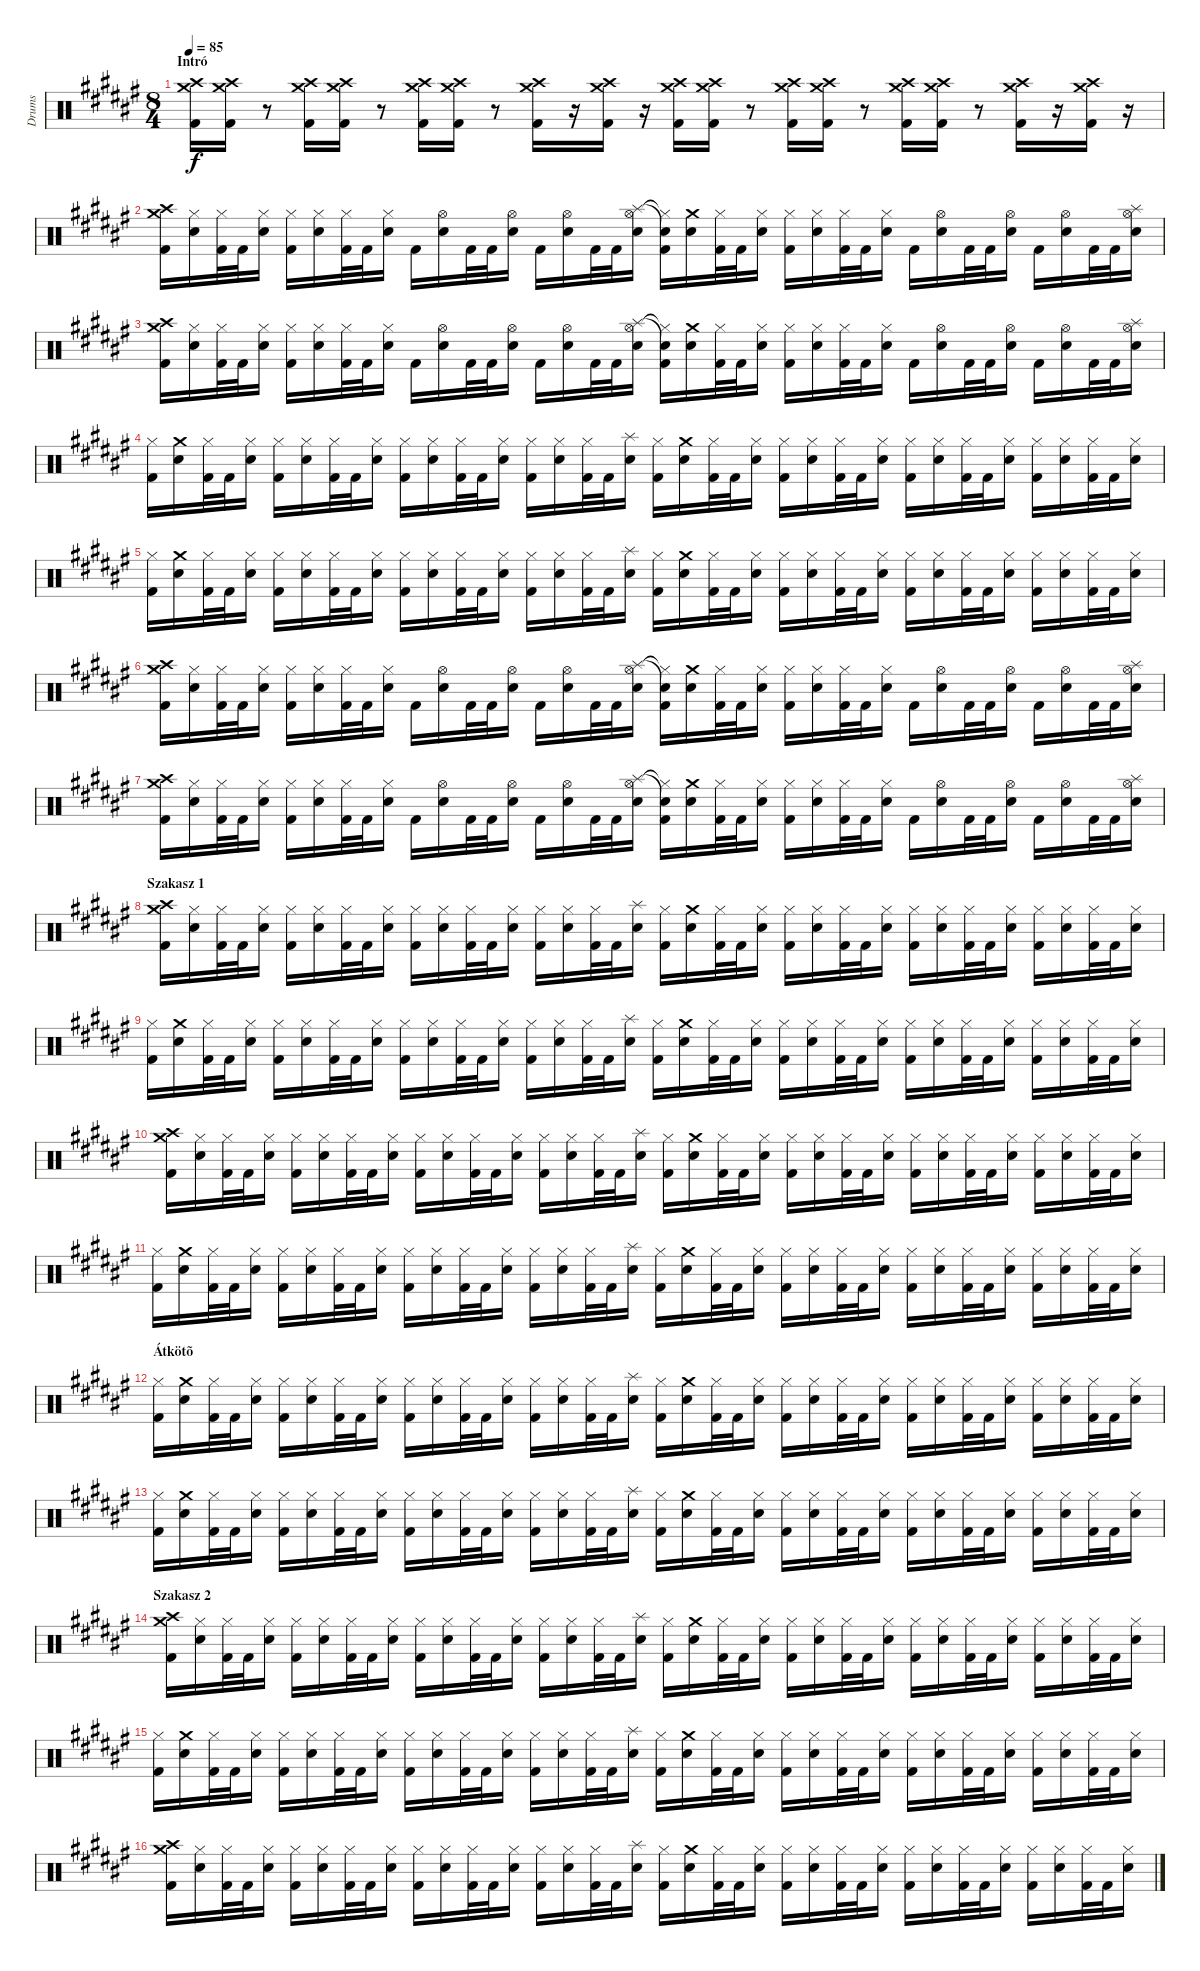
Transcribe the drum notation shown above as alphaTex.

\track ("Drums" "Drums") {instrument percussion}
\staff {score}
\articulation defaults
\ts (8 4)
\section ("" "Intró")
\tempo 85
\clef neutral
\ks d#minor
("Crash medium (hit)" "Crash high (hit)" "Kick (hit) 2").16{dy f} ("Crash medium (hit)" "Crash high (hit)" "Kick (hit) 2").16 r.8 ("Crash medium (hit)" "Crash high (hit)" "Kick (hit) 2").16 ("Crash medium (hit)" "Crash high (hit)" "Kick (hit) 2").16 r.8 ("Crash medium (hit)" "Crash high (hit)" "Kick (hit) 2").16 ("Crash medium (hit)" "Crash high (hit)" "Kick (hit) 2").16 r.8 ("Crash medium (hit)" "Crash high (hit)" "Kick (hit) 2").16 r.16 ("Crash medium (hit)" "Crash high (hit)" "Kick (hit) 2").16 r.16 ("Crash medium (hit)" "Crash high (hit)" "Kick (hit) 2").16 ("Crash medium (hit)" "Crash high (hit)" "Kick (hit) 2").16 r.8 ("Crash medium (hit)" "Crash high (hit)" "Kick (hit) 2").16 ("Crash medium (hit)" "Crash high (hit)" "Kick (hit) 2").16 r.8 ("Crash medium (hit)" "Crash high (hit)" "Kick (hit) 2").16 ("Crash medium (hit)" "Crash high (hit)" "Kick (hit) 2").16 r.8 ("Crash medium (hit)" "Crash high (hit)" "Kick (hit) 2").16 r.16 ("Crash medium (hit)" "Crash high (hit)" "Kick (hit) 2").16 r.16 |
("Crash medium (hit)" "Crash high (hit)" "Kick (hit) 2").16 ("Hi-Hat (closed)" "Snare (hit) 2").16 ("Hi-Hat (closed)" "Kick (hit) 2").32 "Kick (hit) 2".32 ("Hi-Hat (closed)" "Snare (hit) 2").16 ("Hi-Hat (closed)" "Kick (hit) 2").16 ("Hi-Hat (closed)" "Snare (hit) 2").16 ("Hi-Hat (closed)" "Kick (hit) 2").32 "Kick (hit) 2".32 ("Hi-Hat (closed)" "Snare (hit) 2").16 "Kick (hit) 2".16 ("Hi-Hat (open)" "Snare (hit) 2").16 "Kick (hit) 2".32 "Kick (hit) 2".32 ("Hi-Hat (open)" "Snare (hit) 2").16 "Kick (hit) 2".16 ("Hi-Hat (open)" "Snare (hit) 2").16 "Kick (hit) 2".32 "Kick (hit) 2".32 ("Hi-Hat (open)" "Splash (hit)" "Snare (hit) 2").16 ("Hi-Hat (closed)"{t} "Snare (hit)"{t} "Kick (hit) 2").16 ("Crash medium (hit)" "Snare (hit) 2").16 ("Hi-Hat (closed)" "Kick (hit) 2").32 "Kick (hit) 2".32 ("Hi-Hat (closed)" "Snare (hit) 2").16 ("Hi-Hat (closed)" "Kick (hit) 2").16 ("Hi-Hat (closed)" "Snare (hit) 2").16 ("Hi-Hat (closed)" "Kick (hit) 2").32 "Kick (hit) 2".32 ("Hi-Hat (closed)" "Snare (hit) 2").16 "Kick (hit) 2".16 ("Hi-Hat (open)" "Snare (hit) 2").16 "Kick (hit) 2".32 "Kick (hit) 2".32 ("Hi-Hat (open)" "Snare (hit) 2").16 "Kick (hit) 2".16 ("Hi-Hat (open)" "Snare (hit) 2").16 "Kick (hit) 2".32 "Kick (hit) 2".32 ("Hi-Hat (open)" "Splash (hit)" "Snare (hit) 2").16 |
("Crash medium (hit)" "Crash high (hit)" "Kick (hit) 2").16 ("Hi-Hat (closed)" "Snare (hit) 2").16 ("Hi-Hat (closed)" "Kick (hit) 2").32 "Kick (hit) 2".32 ("Hi-Hat (closed)" "Snare (hit) 2").16 ("Hi-Hat (closed)" "Kick (hit) 2").16 ("Hi-Hat (closed)" "Snare (hit) 2").16 ("Hi-Hat (closed)" "Kick (hit) 2").32 "Kick (hit) 2".32 ("Hi-Hat (closed)" "Snare (hit) 2").16 "Kick (hit) 2".16 ("Hi-Hat (open)" "Snare (hit) 2").16 "Kick (hit) 2".32 "Kick (hit) 2".32 ("Hi-Hat (open)" "Snare (hit) 2").16 "Kick (hit) 2".16 ("Hi-Hat (open)" "Snare (hit) 2").16 "Kick (hit) 2".32 "Kick (hit) 2".32 ("Hi-Hat (open)" "Splash (hit)" "Snare (hit) 2").16 ("Hi-Hat (closed)"{t} "Snare (hit)"{t} "Kick (hit) 2").16 ("Crash medium (hit)" "Snare (hit) 2").16 ("Hi-Hat (closed)" "Kick (hit) 2").32 "Kick (hit) 2".32 ("Hi-Hat (closed)" "Snare (hit) 2").16 ("Hi-Hat (closed)" "Kick (hit) 2").16 ("Hi-Hat (closed)" "Snare (hit) 2").16 ("Hi-Hat (closed)" "Kick (hit) 2").32 "Kick (hit) 2".32 ("Hi-Hat (closed)" "Snare (hit) 2").16 "Kick (hit) 2".16 ("Hi-Hat (open)" "Snare (hit) 2").16 "Kick (hit) 2".32 "Kick (hit) 2".32 ("Hi-Hat (open)" "Snare (hit) 2").16 "Kick (hit) 2".16 ("Hi-Hat (open)" "Snare (hit) 2").16 "Kick (hit) 2".32 "Kick (hit) 2".32 ("Hi-Hat (open)" "Splash (hit)" "Snare (hit) 2").16 |
("Hi-Hat (closed)" "Kick (hit) 2").16 ("Crash medium (hit)" "Snare (hit) 2").16 ("Hi-Hat (closed)" "Kick (hit) 2").32 "Kick (hit) 2".32 ("Hi-Hat (closed)" "Snare (hit) 2").16 ("Hi-Hat (closed)" "Kick (hit) 2").16 ("Hi-Hat (closed)" "Snare (hit) 2").16 ("Hi-Hat (closed)" "Kick (hit) 2").32 "Kick (hit) 2".32 ("Hi-Hat (closed)" "Snare (hit) 2").16 ("Hi-Hat (closed)" "Kick (hit) 2").16 ("Hi-Hat (closed)" "Snare (hit) 2").16 ("Hi-Hat (closed)" "Kick (hit) 2").32 "Kick (hit) 2".32 ("Hi-Hat (closed)" "Snare (hit) 2").16 ("Hi-Hat (closed)" "Kick (hit) 2").16 ("Hi-Hat (closed)" "Snare (hit) 2").16 ("Hi-Hat (closed)" "Kick (hit) 2").32 "Kick (hit) 2".32 ("Splash (hit)" "Snare (hit) 2").16 ("Hi-Hat (closed)" "Kick (hit) 2").16 ("Crash medium (hit)" "Snare (hit) 2").16 ("Hi-Hat (closed)" "Kick (hit) 2").32 "Kick (hit) 2".32 ("Hi-Hat (closed)" "Snare (hit) 2").16 ("Hi-Hat (closed)" "Kick (hit) 2").16 ("Hi-Hat (closed)" "Snare (hit) 2").16 ("Hi-Hat (closed)" "Kick (hit) 2").32 "Kick (hit) 2".32 ("Hi-Hat (closed)" "Snare (hit) 2").16 ("Hi-Hat (closed)" "Kick (hit) 2").16 ("Hi-Hat (closed)" "Snare (hit) 2").16 ("Hi-Hat (closed)" "Kick (hit) 2").32 "Kick (hit) 2".32 ("Hi-Hat (closed)" "Snare (hit) 2").16 ("Hi-Hat (closed)" "Kick (hit) 2").16 ("Hi-Hat (closed)" "Snare (hit) 2").16 ("Hi-Hat (closed)" "Kick (hit) 2").32 "Kick (hit) 2".32 ("Hi-Hat (closed)" "Snare (hit) 2").16 |
("Hi-Hat (closed)" "Kick (hit) 2").16 ("Crash medium (hit)" "Snare (hit) 2").16 ("Hi-Hat (closed)" "Kick (hit) 2").32 "Kick (hit) 2".32 ("Hi-Hat (closed)" "Snare (hit) 2").16 ("Hi-Hat (closed)" "Kick (hit) 2").16 ("Hi-Hat (closed)" "Snare (hit) 2").16 ("Hi-Hat (closed)" "Kick (hit) 2").32 "Kick (hit) 2".32 ("Hi-Hat (closed)" "Snare (hit) 2").16 ("Hi-Hat (closed)" "Kick (hit) 2").16 ("Hi-Hat (closed)" "Snare (hit) 2").16 ("Hi-Hat (closed)" "Kick (hit) 2").32 "Kick (hit) 2".32 ("Hi-Hat (closed)" "Snare (hit) 2").16 ("Hi-Hat (closed)" "Kick (hit) 2").16 ("Hi-Hat (closed)" "Snare (hit) 2").16 ("Hi-Hat (closed)" "Kick (hit) 2").32 "Kick (hit) 2".32 ("Splash (hit)" "Snare (hit) 2").16 ("Hi-Hat (closed)" "Kick (hit) 2").16 ("Crash medium (hit)" "Snare (hit) 2").16 ("Hi-Hat (closed)" "Kick (hit) 2").32 "Kick (hit) 2".32 ("Hi-Hat (closed)" "Snare (hit) 2").16 ("Hi-Hat (closed)" "Kick (hit) 2").16 ("Hi-Hat (closed)" "Snare (hit) 2").16 ("Hi-Hat (closed)" "Kick (hit) 2").32 "Kick (hit) 2".32 ("Hi-Hat (closed)" "Snare (hit) 2").16 ("Hi-Hat (closed)" "Kick (hit) 2").16 ("Hi-Hat (closed)" "Snare (hit) 2").16 ("Hi-Hat (closed)" "Kick (hit) 2").32 "Kick (hit) 2".32 ("Hi-Hat (closed)" "Snare (hit) 2").16 ("Hi-Hat (closed)" "Kick (hit) 2").16 ("Hi-Hat (closed)" "Snare (hit) 2").16 ("Hi-Hat (closed)" "Kick (hit) 2").32 "Kick (hit) 2".32 ("Hi-Hat (closed)" "Snare (hit) 2").16 |
("Crash medium (hit)" "Crash high (hit)" "Kick (hit) 2").16 ("Hi-Hat (closed)" "Snare (hit) 2").16 ("Hi-Hat (closed)" "Kick (hit) 2").32 "Kick (hit) 2".32 ("Hi-Hat (closed)" "Snare (hit) 2").16 ("Hi-Hat (closed)" "Kick (hit) 2").16 ("Hi-Hat (closed)" "Snare (hit) 2").16 ("Hi-Hat (closed)" "Kick (hit) 2").32 "Kick (hit) 2".32 ("Hi-Hat (closed)" "Snare (hit) 2").16 "Kick (hit) 2".16 ("Hi-Hat (open)" "Snare (hit) 2").16 "Kick (hit) 2".32 "Kick (hit) 2".32 ("Hi-Hat (open)" "Snare (hit) 2").16 "Kick (hit) 2".16 ("Hi-Hat (open)" "Snare (hit) 2").16 "Kick (hit) 2".32 "Kick (hit) 2".32 ("Hi-Hat (open)" "Splash (hit)" "Snare (hit) 2").16 ("Hi-Hat (closed)"{t} "Snare (hit)"{t} "Kick (hit) 2").16 ("Crash medium (hit)" "Snare (hit) 2").16 ("Hi-Hat (closed)" "Kick (hit) 2").32 "Kick (hit) 2".32 ("Hi-Hat (closed)" "Snare (hit) 2").16 ("Hi-Hat (closed)" "Kick (hit) 2").16 ("Hi-Hat (closed)" "Snare (hit) 2").16 ("Hi-Hat (closed)" "Kick (hit) 2").32 "Kick (hit) 2".32 ("Hi-Hat (closed)" "Snare (hit) 2").16 "Kick (hit) 2".16 ("Hi-Hat (open)" "Snare (hit) 2").16 "Kick (hit) 2".32 "Kick (hit) 2".32 ("Hi-Hat (open)" "Snare (hit) 2").16 "Kick (hit) 2".16 ("Hi-Hat (open)" "Snare (hit) 2").16 "Kick (hit) 2".32 "Kick (hit) 2".32 ("Hi-Hat (open)" "Splash (hit)" "Snare (hit) 2").16 |
("Crash medium (hit)" "Crash high (hit)" "Kick (hit) 2").16 ("Hi-Hat (closed)" "Snare (hit) 2").16 ("Hi-Hat (closed)" "Kick (hit) 2").32 "Kick (hit) 2".32 ("Hi-Hat (closed)" "Snare (hit) 2").16 ("Hi-Hat (closed)" "Kick (hit) 2").16 ("Hi-Hat (closed)" "Snare (hit) 2").16 ("Hi-Hat (closed)" "Kick (hit) 2").32 "Kick (hit) 2".32 ("Hi-Hat (closed)" "Snare (hit) 2").16 "Kick (hit) 2".16 ("Hi-Hat (open)" "Snare (hit) 2").16 "Kick (hit) 2".32 "Kick (hit) 2".32 ("Hi-Hat (open)" "Snare (hit) 2").16 "Kick (hit) 2".16 ("Hi-Hat (open)" "Snare (hit) 2").16 "Kick (hit) 2".32 "Kick (hit) 2".32 ("Hi-Hat (open)" "Splash (hit)" "Snare (hit) 2").16 ("Hi-Hat (closed)"{t} "Snare (hit)"{t} "Kick (hit) 2").16 ("Crash medium (hit)" "Snare (hit) 2").16 ("Hi-Hat (closed)" "Kick (hit) 2").32 "Kick (hit) 2".32 ("Hi-Hat (closed)" "Snare (hit) 2").16 ("Hi-Hat (closed)" "Kick (hit) 2").16 ("Hi-Hat (closed)" "Snare (hit) 2").16 ("Hi-Hat (closed)" "Kick (hit) 2").32 "Kick (hit) 2".32 ("Hi-Hat (closed)" "Snare (hit) 2").16 "Kick (hit) 2".16 ("Hi-Hat (open)" "Snare (hit) 2").16 "Kick (hit) 2".32 "Kick (hit) 2".32 ("Hi-Hat (open)" "Snare (hit) 2").16 "Kick (hit) 2".16 ("Hi-Hat (open)" "Snare (hit) 2").16 "Kick (hit) 2".32 "Kick (hit) 2".32 ("Hi-Hat (open)" "Splash (hit)" "Snare (hit) 2").16 |
\section ("" "Szakasz 1")
("Crash medium (hit)" "Crash high (hit)" "Kick (hit) 2").16 ("Hi-Hat (closed)" "Snare (hit) 2").16 ("Hi-Hat (closed)" "Kick (hit) 2").32 "Kick (hit) 2".32 ("Hi-Hat (closed)" "Snare (hit) 2").16 ("Hi-Hat (closed)" "Kick (hit) 2").16 ("Hi-Hat (closed)" "Snare (hit) 2").16 ("Hi-Hat (closed)" "Kick (hit) 2").32 "Kick (hit) 2".32 ("Hi-Hat (closed)" "Snare (hit) 2").16 ("Hi-Hat (closed)" "Kick (hit) 2").16 ("Hi-Hat (closed)" "Snare (hit) 2").16 ("Hi-Hat (closed)" "Kick (hit) 2").32 "Kick (hit) 2".32 ("Hi-Hat (closed)" "Snare (hit) 2").16 ("Hi-Hat (closed)" "Kick (hit) 2").16 ("Hi-Hat (closed)" "Snare (hit) 2").16 ("Hi-Hat (closed)" "Kick (hit) 2").32 "Kick (hit) 2".32 ("Splash (hit)" "Snare (hit) 2").16 ("Hi-Hat (closed)" "Kick (hit) 2").16 ("Crash medium (hit)" "Snare (hit) 2").16 ("Hi-Hat (closed)" "Kick (hit) 2").32 "Kick (hit) 2".32 ("Hi-Hat (closed)" "Snare (hit) 2").16 ("Hi-Hat (closed)" "Kick (hit) 2").16 ("Hi-Hat (closed)" "Snare (hit) 2").16 ("Hi-Hat (closed)" "Kick (hit) 2").32 "Kick (hit) 2".32 ("Hi-Hat (closed)" "Snare (hit) 2").16 ("Hi-Hat (closed)" "Kick (hit) 2").16 ("Hi-Hat (closed)" "Snare (hit) 2").16 ("Hi-Hat (closed)" "Kick (hit) 2").32 "Kick (hit) 2".32 ("Hi-Hat (closed)" "Snare (hit) 2").16 ("Hi-Hat (closed)" "Kick (hit) 2").16 ("Hi-Hat (closed)" "Snare (hit) 2").16 ("Hi-Hat (closed)" "Kick (hit) 2").32 "Kick (hit) 2".32 ("Hi-Hat (closed)" "Snare (hit) 2").16 |
("Hi-Hat (closed)" "Kick (hit) 2").16 ("Crash medium (hit)" "Snare (hit) 2").16 ("Hi-Hat (closed)" "Kick (hit) 2").32 "Kick (hit) 2".32 ("Hi-Hat (closed)" "Snare (hit) 2").16 ("Hi-Hat (closed)" "Kick (hit) 2").16 ("Hi-Hat (closed)" "Snare (hit) 2").16 ("Hi-Hat (closed)" "Kick (hit) 2").32 "Kick (hit) 2".32 ("Hi-Hat (closed)" "Snare (hit) 2").16 ("Hi-Hat (closed)" "Kick (hit) 2").16 ("Hi-Hat (closed)" "Snare (hit) 2").16 ("Hi-Hat (closed)" "Kick (hit) 2").32 "Kick (hit) 2".32 ("Hi-Hat (closed)" "Snare (hit) 2").16 ("Hi-Hat (closed)" "Kick (hit) 2").16 ("Hi-Hat (closed)" "Snare (hit) 2").16 ("Hi-Hat (closed)" "Kick (hit) 2").32 "Kick (hit) 2".32 ("Splash (hit)" "Snare (hit) 2").16 ("Hi-Hat (closed)" "Kick (hit) 2").16 ("Crash medium (hit)" "Snare (hit) 2").16 ("Hi-Hat (closed)" "Kick (hit) 2").32 "Kick (hit) 2".32 ("Hi-Hat (closed)" "Snare (hit) 2").16 ("Hi-Hat (closed)" "Kick (hit) 2").16 ("Hi-Hat (closed)" "Snare (hit) 2").16 ("Hi-Hat (closed)" "Kick (hit) 2").32 "Kick (hit) 2".32 ("Hi-Hat (closed)" "Snare (hit) 2").16 ("Hi-Hat (closed)" "Kick (hit) 2").16 ("Hi-Hat (closed)" "Snare (hit) 2").16 ("Hi-Hat (closed)" "Kick (hit) 2").32 "Kick (hit) 2".32 ("Hi-Hat (closed)" "Snare (hit) 2").16 ("Hi-Hat (closed)" "Kick (hit) 2").16 ("Hi-Hat (closed)" "Snare (hit) 2").16 ("Hi-Hat (closed)" "Kick (hit) 2").32 "Kick (hit) 2".32 ("Hi-Hat (closed)" "Snare (hit) 2").16 |
("Crash medium (hit)" "Crash high (hit)" "Kick (hit) 2").16 ("Hi-Hat (closed)" "Snare (hit) 2").16 ("Hi-Hat (closed)" "Kick (hit) 2").32 "Kick (hit) 2".32 ("Hi-Hat (closed)" "Snare (hit) 2").16 ("Hi-Hat (closed)" "Kick (hit) 2").16 ("Hi-Hat (closed)" "Snare (hit) 2").16 ("Hi-Hat (closed)" "Kick (hit) 2").32 "Kick (hit) 2".32 ("Hi-Hat (closed)" "Snare (hit) 2").16 ("Hi-Hat (closed)" "Kick (hit) 2").16 ("Hi-Hat (closed)" "Snare (hit) 2").16 ("Hi-Hat (closed)" "Kick (hit) 2").32 "Kick (hit) 2".32 ("Hi-Hat (closed)" "Snare (hit) 2").16 ("Hi-Hat (closed)" "Kick (hit) 2").16 ("Hi-Hat (closed)" "Snare (hit) 2").16 ("Hi-Hat (closed)" "Kick (hit) 2").32 "Kick (hit) 2".32 ("Splash (hit)" "Snare (hit) 2").16 ("Hi-Hat (closed)" "Kick (hit) 2").16 ("Crash medium (hit)" "Snare (hit) 2").16 ("Hi-Hat (closed)" "Kick (hit) 2").32 "Kick (hit) 2".32 ("Hi-Hat (closed)" "Snare (hit) 2").16 ("Hi-Hat (closed)" "Kick (hit) 2").16 ("Hi-Hat (closed)" "Snare (hit) 2").16 ("Hi-Hat (closed)" "Kick (hit) 2").32 "Kick (hit) 2".32 ("Hi-Hat (closed)" "Snare (hit) 2").16 ("Hi-Hat (closed)" "Kick (hit) 2").16 ("Hi-Hat (closed)" "Snare (hit) 2").16 ("Hi-Hat (closed)" "Kick (hit) 2").32 "Kick (hit) 2".32 ("Hi-Hat (closed)" "Snare (hit) 2").16 ("Hi-Hat (closed)" "Kick (hit) 2").16 ("Hi-Hat (closed)" "Snare (hit) 2").16 ("Hi-Hat (closed)" "Kick (hit) 2").32 "Kick (hit) 2".32 ("Hi-Hat (closed)" "Snare (hit) 2").16 |
("Hi-Hat (closed)" "Kick (hit) 2").16 ("Crash medium (hit)" "Snare (hit) 2").16 ("Hi-Hat (closed)" "Kick (hit) 2").32 "Kick (hit) 2".32 ("Hi-Hat (closed)" "Snare (hit) 2").16 ("Hi-Hat (closed)" "Kick (hit) 2").16 ("Hi-Hat (closed)" "Snare (hit) 2").16 ("Hi-Hat (closed)" "Kick (hit) 2").32 "Kick (hit) 2".32 ("Hi-Hat (closed)" "Snare (hit) 2").16 ("Hi-Hat (closed)" "Kick (hit) 2").16 ("Hi-Hat (closed)" "Snare (hit) 2").16 ("Hi-Hat (closed)" "Kick (hit) 2").32 "Kick (hit) 2".32 ("Hi-Hat (closed)" "Snare (hit) 2").16 ("Hi-Hat (closed)" "Kick (hit) 2").16 ("Hi-Hat (closed)" "Snare (hit) 2").16 ("Hi-Hat (closed)" "Kick (hit) 2").32 "Kick (hit) 2".32 ("Splash (hit)" "Snare (hit) 2").16 ("Hi-Hat (closed)" "Kick (hit) 2").16 ("Crash medium (hit)" "Snare (hit) 2").16 ("Hi-Hat (closed)" "Kick (hit) 2").32 "Kick (hit) 2".32 ("Hi-Hat (closed)" "Snare (hit) 2").16 ("Hi-Hat (closed)" "Kick (hit) 2").16 ("Hi-Hat (closed)" "Snare (hit) 2").16 ("Hi-Hat (closed)" "Kick (hit) 2").32 "Kick (hit) 2".32 ("Hi-Hat (closed)" "Snare (hit) 2").16 ("Hi-Hat (closed)" "Kick (hit) 2").16 ("Hi-Hat (closed)" "Snare (hit) 2").16 ("Hi-Hat (closed)" "Kick (hit) 2").32 "Kick (hit) 2".32 ("Hi-Hat (closed)" "Snare (hit) 2").16 ("Hi-Hat (closed)" "Kick (hit) 2").16 ("Hi-Hat (closed)" "Snare (hit) 2").16 ("Hi-Hat (closed)" "Kick (hit) 2").32 "Kick (hit) 2".32 ("Hi-Hat (closed)" "Snare (hit) 2").16 |
\section ("" "Átkötõ")
("Hi-Hat (closed)" "Kick (hit) 2").16 ("Crash medium (hit)" "Snare (hit) 2").16 ("Hi-Hat (closed)" "Kick (hit) 2").32 "Kick (hit) 2".32 ("Hi-Hat (closed)" "Snare (hit) 2").16 ("Hi-Hat (closed)" "Kick (hit) 2").16 ("Hi-Hat (closed)" "Snare (hit) 2").16 ("Hi-Hat (closed)" "Kick (hit) 2").32 "Kick (hit) 2".32 ("Hi-Hat (closed)" "Snare (hit) 2").16 ("Hi-Hat (closed)" "Kick (hit) 2").16 ("Hi-Hat (closed)" "Snare (hit) 2").16 ("Hi-Hat (closed)" "Kick (hit) 2").32 "Kick (hit) 2".32 ("Hi-Hat (closed)" "Snare (hit) 2").16 ("Hi-Hat (closed)" "Kick (hit) 2").16 ("Hi-Hat (closed)" "Snare (hit) 2").16 ("Hi-Hat (closed)" "Kick (hit) 2").32 "Kick (hit) 2".32 ("Splash (hit)" "Snare (hit) 2").16 ("Hi-Hat (closed)" "Kick (hit) 2").16 ("Crash medium (hit)" "Snare (hit) 2").16 ("Hi-Hat (closed)" "Kick (hit) 2").32 "Kick (hit) 2".32 ("Hi-Hat (closed)" "Snare (hit) 2").16 ("Hi-Hat (closed)" "Kick (hit) 2").16 ("Hi-Hat (closed)" "Snare (hit) 2").16 ("Hi-Hat (closed)" "Kick (hit) 2").32 "Kick (hit) 2".32 ("Hi-Hat (closed)" "Snare (hit) 2").16 ("Hi-Hat (closed)" "Kick (hit) 2").16 ("Hi-Hat (closed)" "Snare (hit) 2").16 ("Hi-Hat (closed)" "Kick (hit) 2").32 "Kick (hit) 2".32 ("Hi-Hat (closed)" "Snare (hit) 2").16 ("Hi-Hat (closed)" "Kick (hit) 2").16 ("Hi-Hat (closed)" "Snare (hit) 2").16 ("Hi-Hat (closed)" "Kick (hit) 2").32 "Kick (hit) 2".32 ("Hi-Hat (closed)" "Snare (hit) 2").16 |
("Hi-Hat (closed)" "Kick (hit) 2").16 ("Crash medium (hit)" "Snare (hit) 2").16 ("Hi-Hat (closed)" "Kick (hit) 2").32 "Kick (hit) 2".32 ("Hi-Hat (closed)" "Snare (hit) 2").16 ("Hi-Hat (closed)" "Kick (hit) 2").16 ("Hi-Hat (closed)" "Snare (hit) 2").16 ("Hi-Hat (closed)" "Kick (hit) 2").32 "Kick (hit) 2".32 ("Hi-Hat (closed)" "Snare (hit) 2").16 ("Hi-Hat (closed)" "Kick (hit) 2").16 ("Hi-Hat (closed)" "Snare (hit) 2").16 ("Hi-Hat (closed)" "Kick (hit) 2").32 "Kick (hit) 2".32 ("Hi-Hat (closed)" "Snare (hit) 2").16 ("Hi-Hat (closed)" "Kick (hit) 2").16 ("Hi-Hat (closed)" "Snare (hit) 2").16 ("Hi-Hat (closed)" "Kick (hit) 2").32 "Kick (hit) 2".32 ("Splash (hit)" "Snare (hit) 2").16 ("Hi-Hat (closed)" "Kick (hit) 2").16 ("Crash medium (hit)" "Snare (hit) 2").16 ("Hi-Hat (closed)" "Kick (hit) 2").32 "Kick (hit) 2".32 ("Hi-Hat (closed)" "Snare (hit) 2").16 ("Hi-Hat (closed)" "Kick (hit) 2").16 ("Hi-Hat (closed)" "Snare (hit) 2").16 ("Hi-Hat (closed)" "Kick (hit) 2").32 "Kick (hit) 2".32 ("Hi-Hat (closed)" "Snare (hit) 2").16 ("Hi-Hat (closed)" "Kick (hit) 2").16 ("Hi-Hat (closed)" "Snare (hit) 2").16 ("Hi-Hat (closed)" "Kick (hit) 2").32 "Kick (hit) 2".32 ("Hi-Hat (closed)" "Snare (hit) 2").16 ("Hi-Hat (closed)" "Kick (hit) 2").16 ("Hi-Hat (closed)" "Snare (hit) 2").16 ("Hi-Hat (closed)" "Kick (hit) 2").32 "Kick (hit) 2".32 ("Hi-Hat (closed)" "Snare (hit) 2").16 |
\section ("" "Szakasz 2")
("Crash medium (hit)" "Crash high (hit)" "Kick (hit) 2").16 ("Hi-Hat (closed)" "Snare (hit) 2").16 ("Hi-Hat (closed)" "Kick (hit) 2").32 "Kick (hit) 2".32 ("Hi-Hat (closed)" "Snare (hit) 2").16 ("Hi-Hat (closed)" "Kick (hit) 2").16 ("Hi-Hat (closed)" "Snare (hit) 2").16 ("Hi-Hat (closed)" "Kick (hit) 2").32 "Kick (hit) 2".32 ("Hi-Hat (closed)" "Snare (hit) 2").16 ("Hi-Hat (closed)" "Kick (hit) 2").16 ("Hi-Hat (closed)" "Snare (hit) 2").16 ("Hi-Hat (closed)" "Kick (hit) 2").32 "Kick (hit) 2".32 ("Hi-Hat (closed)" "Snare (hit) 2").16 ("Hi-Hat (closed)" "Kick (hit) 2").16 ("Hi-Hat (closed)" "Snare (hit) 2").16 ("Hi-Hat (closed)" "Kick (hit) 2").32 "Kick (hit) 2".32 ("Splash (hit)" "Snare (hit) 2").16 ("Hi-Hat (closed)" "Kick (hit) 2").16 ("Crash medium (hit)" "Snare (hit) 2").16 ("Hi-Hat (closed)" "Kick (hit) 2").32 "Kick (hit) 2".32 ("Hi-Hat (closed)" "Snare (hit) 2").16 ("Hi-Hat (closed)" "Kick (hit) 2").16 ("Hi-Hat (closed)" "Snare (hit) 2").16 ("Hi-Hat (closed)" "Kick (hit) 2").32 "Kick (hit) 2".32 ("Hi-Hat (closed)" "Snare (hit) 2").16 ("Hi-Hat (closed)" "Kick (hit) 2").16 ("Hi-Hat (closed)" "Snare (hit) 2").16 ("Hi-Hat (closed)" "Kick (hit) 2").32 "Kick (hit) 2".32 ("Hi-Hat (closed)" "Snare (hit) 2").16 ("Hi-Hat (closed)" "Kick (hit) 2").16 ("Hi-Hat (closed)" "Snare (hit) 2").16 ("Hi-Hat (closed)" "Kick (hit) 2").32 "Kick (hit) 2".32 ("Hi-Hat (closed)" "Snare (hit) 2").16 |
("Hi-Hat (closed)" "Kick (hit) 2").16 ("Crash medium (hit)" "Snare (hit) 2").16 ("Hi-Hat (closed)" "Kick (hit) 2").32 "Kick (hit) 2".32 ("Hi-Hat (closed)" "Snare (hit) 2").16 ("Hi-Hat (closed)" "Kick (hit) 2").16 ("Hi-Hat (closed)" "Snare (hit) 2").16 ("Hi-Hat (closed)" "Kick (hit) 2").32 "Kick (hit) 2".32 ("Hi-Hat (closed)" "Snare (hit) 2").16 ("Hi-Hat (closed)" "Kick (hit) 2").16 ("Hi-Hat (closed)" "Snare (hit) 2").16 ("Hi-Hat (closed)" "Kick (hit) 2").32 "Kick (hit) 2".32 ("Hi-Hat (closed)" "Snare (hit) 2").16 ("Hi-Hat (closed)" "Kick (hit) 2").16 ("Hi-Hat (closed)" "Snare (hit) 2").16 ("Hi-Hat (closed)" "Kick (hit) 2").32 "Kick (hit) 2".32 ("Splash (hit)" "Snare (hit) 2").16 ("Hi-Hat (closed)" "Kick (hit) 2").16 ("Crash medium (hit)" "Snare (hit) 2").16 ("Hi-Hat (closed)" "Kick (hit) 2").32 "Kick (hit) 2".32 ("Hi-Hat (closed)" "Snare (hit) 2").16 ("Hi-Hat (closed)" "Kick (hit) 2").16 ("Hi-Hat (closed)" "Snare (hit) 2").16 ("Hi-Hat (closed)" "Kick (hit) 2").32 "Kick (hit) 2".32 ("Hi-Hat (closed)" "Snare (hit) 2").16 ("Hi-Hat (closed)" "Kick (hit) 2").16 ("Hi-Hat (closed)" "Snare (hit) 2").16 ("Hi-Hat (closed)" "Kick (hit) 2").32 "Kick (hit) 2".32 ("Hi-Hat (closed)" "Snare (hit) 2").16 ("Hi-Hat (closed)" "Kick (hit) 2").16 ("Hi-Hat (closed)" "Snare (hit) 2").16 ("Hi-Hat (closed)" "Kick (hit) 2").32 "Kick (hit) 2".32 ("Hi-Hat (closed)" "Snare (hit) 2").16 |
("Crash medium (hit)" "Crash high (hit)" "Kick (hit) 2").16 ("Hi-Hat (closed)" "Snare (hit) 2").16 ("Hi-Hat (closed)" "Kick (hit) 2").32 "Kick (hit) 2".32 ("Hi-Hat (closed)" "Snare (hit) 2").16 ("Hi-Hat (closed)" "Kick (hit) 2").16 ("Hi-Hat (closed)" "Snare (hit) 2").16 ("Hi-Hat (closed)" "Kick (hit) 2").32 "Kick (hit) 2".32 ("Hi-Hat (closed)" "Snare (hit) 2").16 ("Hi-Hat (closed)" "Kick (hit) 2").16 ("Hi-Hat (closed)" "Snare (hit) 2").16 ("Hi-Hat (closed)" "Kick (hit) 2").32 "Kick (hit) 2".32 ("Hi-Hat (closed)" "Snare (hit) 2").16 ("Hi-Hat (closed)" "Kick (hit) 2").16 ("Hi-Hat (closed)" "Snare (hit) 2").16 ("Hi-Hat (closed)" "Kick (hit) 2").32 "Kick (hit) 2".32 ("Splash (hit)" "Snare (hit) 2").16 ("Hi-Hat (closed)" "Kick (hit) 2").16 ("Crash medium (hit)" "Snare (hit) 2").16 ("Hi-Hat (closed)" "Kick (hit) 2").32 "Kick (hit) 2".32 ("Hi-Hat (closed)" "Snare (hit) 2").16 ("Hi-Hat (closed)" "Kick (hit) 2").16 ("Hi-Hat (closed)" "Snare (hit) 2").16 ("Hi-Hat (closed)" "Kick (hit) 2").32 "Kick (hit) 2".32 ("Hi-Hat (closed)" "Snare (hit) 2").16 ("Hi-Hat (closed)" "Kick (hit) 2").16 ("Hi-Hat (closed)" "Snare (hit) 2").16 ("Hi-Hat (closed)" "Kick (hit) 2").32 "Kick (hit) 2".32 ("Hi-Hat (closed)" "Snare (hit) 2").16 ("Hi-Hat (closed)" "Kick (hit) 2").16 ("Hi-Hat (closed)" "Snare (hit) 2").16 ("Hi-Hat (closed)" "Kick (hit) 2").32 "Kick (hit) 2".32 ("Hi-Hat (closed)" "Snare (hit) 2").16
